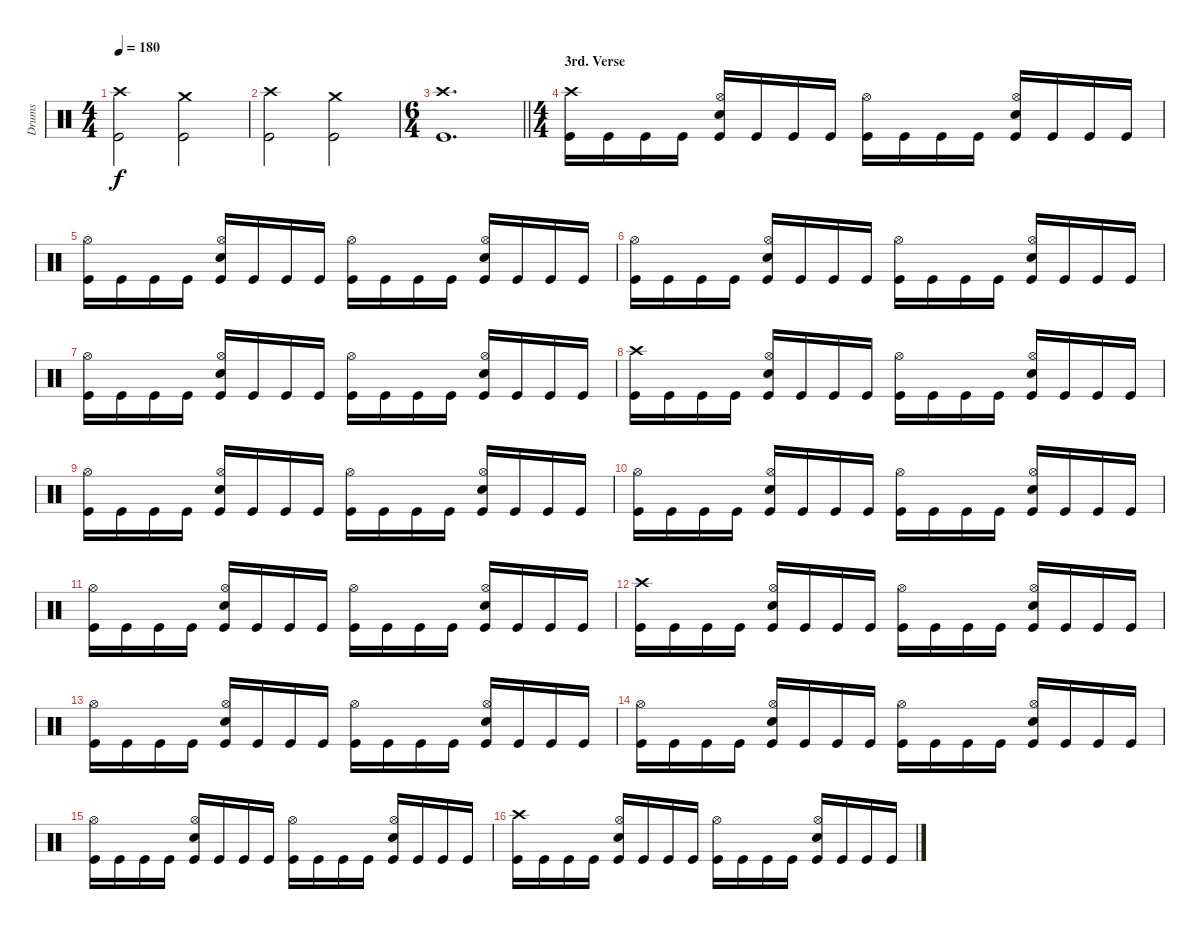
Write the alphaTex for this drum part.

\track ("Drums" "Drums") {instrument percussion}
\staff {score}
\articulation defaults
\ts (4 4)
\tempo 180
\clef neutral
\ks c
("Crash high (hit)" "Kick (hit)").2{dy f} ("Crash medium (hit)" "Kick (hit)").2 |
("Crash high (hit)" "Kick (hit)").2 ("Crash medium (hit)" "Kick (hit)").2 |
\ts (6 4)
\barLineRight lightlight
("Crash high (hit)" "Kick (hit)").1{d} |
\ts (4 4)
\section ("" "3rd. Verse")
("Crash high (hit)" "Kick (hit)").16 "Kick (hit)".16 "Kick (hit)".16 "Kick (hit)".16 ("Hi-Hat (open)" "Electric Snare (hit)" "Kick (hit)").16 "Kick (hit)".16 "Kick (hit)".16 "Kick (hit)".16 ("Hi-Hat (open)" "Kick (hit)").16 "Kick (hit)".16 "Kick (hit)".16 "Kick (hit)".16 ("Hi-Hat (open)" "Electric Snare (hit)" "Kick (hit)").16 "Kick (hit)".16 "Kick (hit)".16 "Kick (hit)".16 |
("Hi-Hat (open)" "Kick (hit)").16 "Kick (hit)".16 "Kick (hit)".16 "Kick (hit)".16 ("Hi-Hat (open)" "Electric Snare (hit)" "Kick (hit)").16 "Kick (hit)".16 "Kick (hit)".16 "Kick (hit)".16 ("Hi-Hat (open)" "Kick (hit)").16 "Kick (hit)".16 "Kick (hit)".16 "Kick (hit)".16 ("Hi-Hat (open)" "Electric Snare (hit)" "Kick (hit)").16 "Kick (hit)".16 "Kick (hit)".16 "Kick (hit)".16 |
("Hi-Hat (open)" "Kick (hit)").16 "Kick (hit)".16 "Kick (hit)".16 "Kick (hit)".16 ("Hi-Hat (open)" "Electric Snare (hit)" "Kick (hit)").16 "Kick (hit)".16 "Kick (hit)".16 "Kick (hit)".16 ("Hi-Hat (open)" "Kick (hit)").16 "Kick (hit)".16 "Kick (hit)".16 "Kick (hit)".16 ("Hi-Hat (open)" "Electric Snare (hit)" "Kick (hit)").16 "Kick (hit)".16 "Kick (hit)".16 "Kick (hit)".16 |
("Hi-Hat (open)" "Kick (hit)").16 "Kick (hit)".16 "Kick (hit)".16 "Kick (hit)".16 ("Hi-Hat (open)" "Electric Snare (hit)" "Kick (hit)").16 "Kick (hit)".16 "Kick (hit)".16 "Kick (hit)".16 ("Hi-Hat (open)" "Kick (hit)").16 "Kick (hit)".16 "Kick (hit)".16 "Kick (hit)".16 ("Hi-Hat (open)" "Electric Snare (hit)" "Kick (hit)").16 "Kick (hit)".16 "Kick (hit)".16 "Kick (hit)".16 |
("Crash high (hit)" "Kick (hit)").16 "Kick (hit)".16 "Kick (hit)".16 "Kick (hit)".16 ("Hi-Hat (open)" "Electric Snare (hit)" "Kick (hit)").16 "Kick (hit)".16 "Kick (hit)".16 "Kick (hit)".16 ("Hi-Hat (open)" "Kick (hit)").16 "Kick (hit)".16 "Kick (hit)".16 "Kick (hit)".16 ("Hi-Hat (open)" "Electric Snare (hit)" "Kick (hit)").16 "Kick (hit)".16 "Kick (hit)".16 "Kick (hit)".16 |
("Hi-Hat (open)" "Kick (hit)").16 "Kick (hit)".16 "Kick (hit)".16 "Kick (hit)".16 ("Hi-Hat (open)" "Electric Snare (hit)" "Kick (hit)").16 "Kick (hit)".16 "Kick (hit)".16 "Kick (hit)".16 ("Hi-Hat (open)" "Kick (hit)").16 "Kick (hit)".16 "Kick (hit)".16 "Kick (hit)".16 ("Hi-Hat (open)" "Electric Snare (hit)" "Kick (hit)").16 "Kick (hit)".16 "Kick (hit)".16 "Kick (hit)".16 |
("Hi-Hat (open)" "Kick (hit)").16 "Kick (hit)".16 "Kick (hit)".16 "Kick (hit)".16 ("Hi-Hat (open)" "Electric Snare (hit)" "Kick (hit)").16 "Kick (hit)".16 "Kick (hit)".16 "Kick (hit)".16 ("Hi-Hat (open)" "Kick (hit)").16 "Kick (hit)".16 "Kick (hit)".16 "Kick (hit)".16 ("Hi-Hat (open)" "Electric Snare (hit)" "Kick (hit)").16 "Kick (hit)".16 "Kick (hit)".16 "Kick (hit)".16 |
("Hi-Hat (open)" "Kick (hit)").16 "Kick (hit)".16 "Kick (hit)".16 "Kick (hit)".16 ("Hi-Hat (open)" "Electric Snare (hit)" "Kick (hit)").16 "Kick (hit)".16 "Kick (hit)".16 "Kick (hit)".16 ("Hi-Hat (open)" "Kick (hit)").16 "Kick (hit)".16 "Kick (hit)".16 "Kick (hit)".16 ("Hi-Hat (open)" "Electric Snare (hit)" "Kick (hit)").16 "Kick (hit)".16 "Kick (hit)".16 "Kick (hit)".16 |
("Crash high (hit)" "Kick (hit)").16 "Kick (hit)".16 "Kick (hit)".16 "Kick (hit)".16 ("Hi-Hat (open)" "Electric Snare (hit)" "Kick (hit)").16 "Kick (hit)".16 "Kick (hit)".16 "Kick (hit)".16 ("Hi-Hat (open)" "Kick (hit)").16 "Kick (hit)".16 "Kick (hit)".16 "Kick (hit)".16 ("Hi-Hat (open)" "Electric Snare (hit)" "Kick (hit)").16 "Kick (hit)".16 "Kick (hit)".16 "Kick (hit)".16 |
("Hi-Hat (open)" "Kick (hit)").16 "Kick (hit)".16 "Kick (hit)".16 "Kick (hit)".16 ("Hi-Hat (open)" "Electric Snare (hit)" "Kick (hit)").16 "Kick (hit)".16 "Kick (hit)".16 "Kick (hit)".16 ("Hi-Hat (open)" "Kick (hit)").16 "Kick (hit)".16 "Kick (hit)".16 "Kick (hit)".16 ("Hi-Hat (open)" "Electric Snare (hit)" "Kick (hit)").16 "Kick (hit)".16 "Kick (hit)".16 "Kick (hit)".16 |
("Hi-Hat (open)" "Kick (hit)").16 "Kick (hit)".16 "Kick (hit)".16 "Kick (hit)".16 ("Hi-Hat (open)" "Electric Snare (hit)" "Kick (hit)").16 "Kick (hit)".16 "Kick (hit)".16 "Kick (hit)".16 ("Hi-Hat (open)" "Kick (hit)").16 "Kick (hit)".16 "Kick (hit)".16 "Kick (hit)".16 ("Hi-Hat (open)" "Electric Snare (hit)" "Kick (hit)").16 "Kick (hit)".16 "Kick (hit)".16 "Kick (hit)".16 |
("Hi-Hat (open)" "Kick (hit)").16 "Kick (hit)".16 "Kick (hit)".16 "Kick (hit)".16 ("Hi-Hat (open)" "Electric Snare (hit)" "Kick (hit)").16 "Kick (hit)".16 "Kick (hit)".16 "Kick (hit)".16 ("Hi-Hat (open)" "Kick (hit)").16 "Kick (hit)".16 "Kick (hit)".16 "Kick (hit)".16 ("Hi-Hat (open)" "Electric Snare (hit)" "Kick (hit)").16 "Kick (hit)".16 "Kick (hit)".16 "Kick (hit)".16 |
("Crash high (hit)" "Kick (hit)").16 "Kick (hit)".16 "Kick (hit)".16 "Kick (hit)".16 ("Hi-Hat (open)" "Electric Snare (hit)" "Kick (hit)").16 "Kick (hit)".16 "Kick (hit)".16 "Kick (hit)".16 ("Hi-Hat (open)" "Kick (hit)").16 "Kick (hit)".16 "Kick (hit)".16 "Kick (hit)".16 ("Hi-Hat (open)" "Electric Snare (hit)" "Kick (hit)").16 "Kick (hit)".16 "Kick (hit)".16 "Kick (hit)".16
